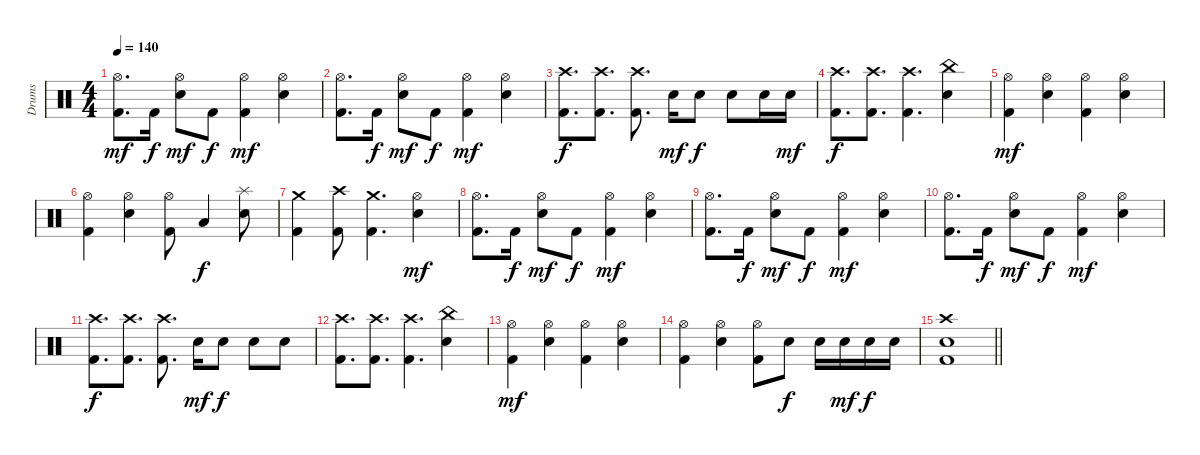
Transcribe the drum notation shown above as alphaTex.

\track ("Drums" "Drums") {instrument percussion}
\staff {score}
\articulation defaults
\ts (4 4)
\tempo 140
\clef neutral
\ks c
("Kick (hit) 2" "Hi-Hat (open)").8{d dy mf} "Kick (hit) 2".16{dy f} ("Hi-Hat (open)" "Electric Snare (hit)").8{dy mf} "Kick (hit) 2".8{dy f} ("Kick (hit) 2" "Hi-Hat (open)").4{dy mf} ("Hi-Hat (open)" "Electric Snare (hit)").4 |
("Kick (hit) 2" "Hi-Hat (open)").8{d} "Kick (hit) 2".16{dy f} ("Hi-Hat (open)" "Electric Snare (hit)").8{dy mf} "Kick (hit) 2".8{dy f} ("Kick (hit) 2" "Hi-Hat (open)").4{dy mf} ("Hi-Hat (open)" "Electric Snare (hit)").4 |
("Kick (hit) 2" "Crash high (hit)").8{d dy f} ("Kick (hit) 2" "Crash high (hit)").8{d} ("Kick (hit) 2" "Crash high (hit)").8{d} "Electric Snare (hit)".16{dy mf} "Electric Snare (hit)".8{dy f} "Electric Snare (hit)".8 "Electric Snare (hit)".16 "Electric Snare (hit)".16{dy mf} |
("Kick (hit) 2" "Crash high (hit)").8{d dy f} ("Kick (hit) 2" "Crash high (hit)").8{d} ("Kick (hit) 2" "Crash high (hit)").4{d} ("China (hit)" "Electric Snare (hit)").4 |
("Kick (hit) 2" "Hi-Hat (open)").4{dy mf} ("Hi-Hat (open)" "Electric Snare (hit)").4 ("Kick (hit) 2" "Hi-Hat (open)").4 ("Hi-Hat (open)" "Electric Snare (hit)").4 |
("Kick (hit) 2" "Hi-Hat (open)").4 ("Hi-Hat (open)" "Electric Snare (hit)").4 ("Kick (hit) 2" "Hi-Hat (open)").8 "Low Tom (hit)".4{dy f} ("Splash (hit)" "Electric Snare (hit)").8 |
("Kick (hit) 2" "Crash medium (hit)").4 ("Kick (hit) 2" "Crash high (hit)").8 ("Kick (hit) 2" "Crash medium (hit)").4{d} ("Hi-Hat (open)" "Electric Snare (hit)").4{dy mf} |
("Kick (hit) 2" "Hi-Hat (open)").8{d} "Kick (hit) 2".16{dy f} ("Hi-Hat (open)" "Electric Snare (hit)").8{dy mf} "Kick (hit) 2".8{dy f} ("Kick (hit) 2" "Hi-Hat (open)").4{dy mf} ("Hi-Hat (open)" "Electric Snare (hit)").4 |
("Kick (hit) 2" "Hi-Hat (open)").8{d} "Kick (hit) 2".16{dy f} ("Hi-Hat (open)" "Electric Snare (hit)").8{dy mf} "Kick (hit) 2".8{dy f} ("Kick (hit) 2" "Hi-Hat (open)").4{dy mf} ("Hi-Hat (open)" "Electric Snare (hit)").4 |
("Kick (hit) 2" "Hi-Hat (open)").8{d} "Kick (hit) 2".16{dy f} ("Hi-Hat (open)" "Electric Snare (hit)").8{dy mf} "Kick (hit) 2".8{dy f} ("Kick (hit) 2" "Hi-Hat (open)").4{dy mf} ("Hi-Hat (open)" "Electric Snare (hit)").4 |
("Kick (hit) 2" "Crash high (hit)").8{d dy f} ("Kick (hit) 2" "Crash high (hit)").8{d} ("Kick (hit) 2" "Crash high (hit)").8{d} "Electric Snare (hit)".16{dy mf} "Electric Snare (hit)".8{dy f} "Electric Snare (hit)".8 "Electric Snare (hit)".8 |
("Kick (hit) 2" "Crash high (hit)").8{d} ("Kick (hit) 2" "Crash high (hit)").8{d} ("Kick (hit) 2" "Crash high (hit)").4{d} ("China (hit)" "Electric Snare (hit)").4 |
("Kick (hit) 2" "Hi-Hat (open)").4{dy mf} ("Hi-Hat (open)" "Electric Snare (hit)").4 ("Kick (hit) 2" "Hi-Hat (open)").4 ("Hi-Hat (open)" "Electric Snare (hit)").4 |
("Kick (hit) 2" "Hi-Hat (open)").4 ("Hi-Hat (open)" "Electric Snare (hit)").4 ("Kick (hit) 2" "Hi-Hat (open)").8 "Electric Snare (hit)".8{dy f} "Electric Snare (hit)".16 "Electric Snare (hit)".16{dy mf} "Electric Snare (hit)".16{dy f} "Electric Snare (hit)".16 |
\barLineRight lightlight
("Kick (hit) 2" "Crash high (hit)" "Electric Snare (hit)").1
